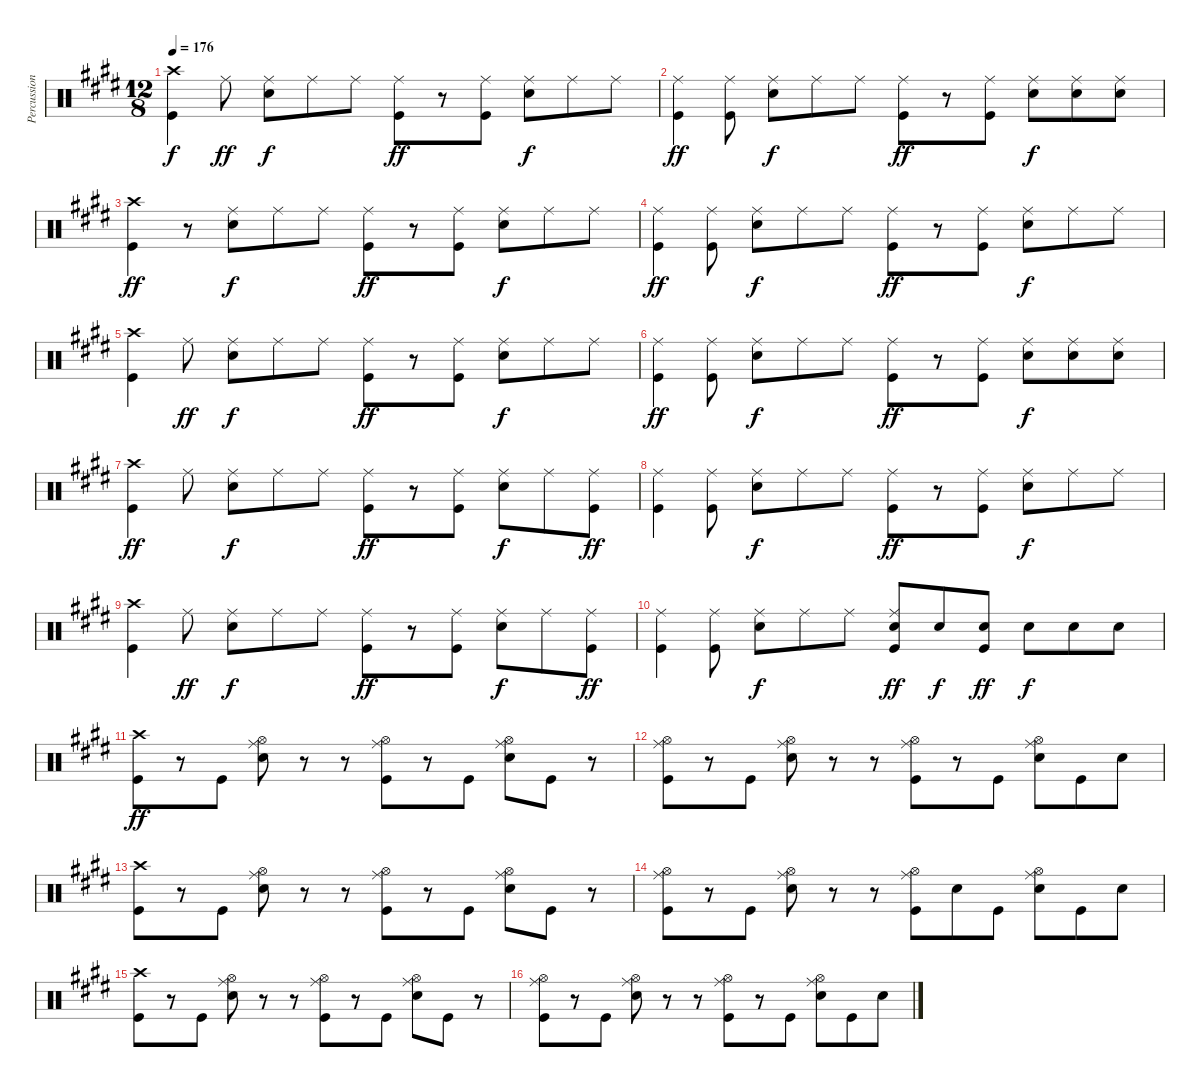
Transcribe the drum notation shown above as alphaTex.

\track ("Percussion" "Percussion") {instrument percussion}
\staff {score}
\articulation defaults
\ts (12 8)
\tempo 176
\clef neutral
\ks e
("Crash high (hit)" "Kick (hit)").4{dy f} "Ride (middle)".8{dy ff} ("Ride (middle)" "Electric Snare (hit)").8{dy f} "Ride (middle)".8 "Ride (middle)".8 ("Ride (middle)" "Kick (hit)").8{dy ff} r.8 ("Ride (middle)" "Kick (hit)").8 ("Ride (middle)" "Electric Snare (hit)").8{dy f} "Ride (middle)".8 "Ride (middle)".8 |
("Ride (middle)" "Kick (hit)").4{dy ff} ("Ride (middle)" "Kick (hit)").8 ("Ride (middle)" "Electric Snare (hit)").8{dy f} "Ride (middle)".8 "Ride (middle)".8 ("Ride (middle)" "Kick (hit)").8{dy ff} r.8 ("Ride (middle)" "Kick (hit)").8 ("Ride (middle)" "Electric Snare (hit)").8{dy f} ("Ride (middle)" "Electric Snare (hit)").8 ("Ride (middle)" "Electric Snare (hit)").8 |
("Crash high (hit)" "Kick (hit)").4{dy ff} r.8 ("Ride (middle)" "Electric Snare (hit)").8{dy f} "Ride (middle)".8 "Ride (middle)".8 ("Ride (middle)" "Kick (hit)").8{dy ff} r.8 ("Ride (middle)" "Kick (hit)").8 ("Ride (middle)" "Electric Snare (hit)").8{dy f} "Ride (middle)".8 "Ride (middle)".8 |
("Ride (middle)" "Kick (hit)").4{dy ff} ("Ride (middle)" "Kick (hit)").8 ("Ride (middle)" "Electric Snare (hit)").8{dy f} "Ride (middle)".8 "Ride (middle)".8 ("Ride (middle)" "Kick (hit)").8{dy ff} r.8 ("Ride (middle)" "Kick (hit)").8 ("Ride (middle)" "Electric Snare (hit)").8{dy f} "Ride (middle)".8 "Ride (middle)".8 |
("Crash high (hit)" "Kick (hit)").4 "Ride (middle)".8{dy ff} ("Ride (middle)" "Electric Snare (hit)").8{dy f} "Ride (middle)".8 "Ride (middle)".8 ("Ride (middle)" "Kick (hit)").8{dy ff} r.8 ("Ride (middle)" "Kick (hit)").8 ("Ride (middle)" "Electric Snare (hit)").8{dy f} "Ride (middle)".8 "Ride (middle)".8 |
("Ride (middle)" "Kick (hit)").4{dy ff} ("Ride (middle)" "Kick (hit)").8 ("Ride (middle)" "Electric Snare (hit)").8{dy f} "Ride (middle)".8 "Ride (middle)".8 ("Ride (middle)" "Kick (hit)").8{dy ff} r.8 ("Ride (middle)" "Kick (hit)").8 ("Ride (middle)" "Electric Snare (hit)").8{dy f} ("Ride (middle)" "Electric Snare (hit)").8 ("Ride (middle)" "Electric Snare (hit)").8 |
("Crash high (hit)" "Kick (hit)").4{dy ff} "Ride (middle)".8 ("Ride (middle)" "Electric Snare (hit)").8{dy f} "Ride (middle)".8 "Ride (middle)".8 ("Ride (middle)" "Kick (hit)").8{dy ff} r.8 ("Ride (middle)" "Kick (hit)").8 ("Ride (middle)" "Electric Snare (hit)").8{dy f} "Ride (middle)".8 ("Ride (middle)" "Kick (hit)").8{dy ff} |
("Ride (middle)" "Kick (hit)").4 ("Ride (middle)" "Kick (hit)").8 ("Ride (middle)" "Electric Snare (hit)").8{dy f} "Ride (middle)".8 "Ride (middle)".8 ("Ride (middle)" "Kick (hit)").8{dy ff} r.8 ("Ride (middle)" "Kick (hit)").8 ("Ride (middle)" "Electric Snare (hit)").8{dy f} "Ride (middle)".8 "Ride (middle)".8 |
("Crash high (hit)" "Kick (hit)").4 "Ride (middle)".8{dy ff} ("Ride (middle)" "Electric Snare (hit)").8{dy f} "Ride (middle)".8 "Ride (middle)".8 ("Ride (middle)" "Kick (hit)").8{dy ff} r.8 ("Ride (middle)" "Kick (hit)").8 ("Ride (middle)" "Electric Snare (hit)").8{dy f} "Ride (middle)".8 ("Ride (middle)" "Kick (hit)").8{dy ff} |
("Ride (middle)" "Kick (hit)").4 ("Ride (middle)" "Kick (hit)").8 ("Ride (middle)" "Electric Snare (hit)").8{dy f} "Ride (middle)".8 "Ride (middle)".8 ("Ride (middle)" "Electric Snare (hit)" "Kick (hit)").8{dy ff} "Electric Snare (hit)".8{dy f} ("Electric Snare (hit)" "Kick (hit)").8{dy ff} "Electric Snare (hit)".8{dy f} "Electric Snare (hit)".8 "Electric Snare (hit)".8 |
("Crash high (hit)" "Kick (hit)").8{dy ff} r.8 "Kick (hit)".8 ("Ride (middle)" "Hi-Hat (open)" "Electric Snare (hit)").8 r.8 r.8 ("Ride (middle)" "Hi-Hat (open)" "Kick (hit)").8 r.8 "Kick (hit)".8 ("Ride (middle)" "Hi-Hat (open)" "Electric Snare (hit)").8 "Kick (hit)".8 r.8 |
("Ride (middle)" "Hi-Hat (open)" "Kick (hit)").8 r.8 "Kick (hit)".8 ("Ride (middle)" "Hi-Hat (open)" "Electric Snare (hit)").8 r.8 r.8 ("Ride (middle)" "Hi-Hat (open)" "Kick (hit)").8 r.8 "Kick (hit)".8 ("Ride (middle)" "Hi-Hat (open)" "Electric Snare (hit)").8 "Kick (hit)".8 "Electric Snare (hit)".8 |
("Crash high (hit)" "Kick (hit)").8 r.8 "Kick (hit)".8 ("Ride (middle)" "Hi-Hat (open)" "Electric Snare (hit)").8 r.8 r.8 ("Ride (middle)" "Hi-Hat (open)" "Kick (hit)").8 r.8 "Kick (hit)".8 ("Ride (middle)" "Hi-Hat (open)" "Electric Snare (hit)").8 "Kick (hit)".8 r.8 |
("Ride (middle)" "Hi-Hat (open)" "Kick (hit)").8 r.8 "Kick (hit)".8 ("Ride (middle)" "Hi-Hat (open)" "Electric Snare (hit)").8 r.8 r.8 ("Ride (middle)" "Hi-Hat (open)" "Kick (hit)").8 "Electric Snare (hit)".8 "Kick (hit)".8 ("Ride (middle)" "Hi-Hat (open)" "Electric Snare (hit)").8 "Kick (hit)".8 "Electric Snare (hit)".8 |
("Crash high (hit)" "Kick (hit)").8 r.8 "Kick (hit)".8 ("Ride (middle)" "Hi-Hat (open)" "Electric Snare (hit)").8 r.8 r.8 ("Ride (middle)" "Hi-Hat (open)" "Kick (hit)").8 r.8 "Kick (hit)".8 ("Ride (middle)" "Hi-Hat (open)" "Electric Snare (hit)").8 "Kick (hit)".8 r.8 |
("Ride (middle)" "Hi-Hat (open)" "Kick (hit)").8 r.8 "Kick (hit)".8 ("Ride (middle)" "Hi-Hat (open)" "Electric Snare (hit)").8 r.8 r.8 ("Ride (middle)" "Hi-Hat (open)" "Kick (hit)").8 r.8 "Kick (hit)".8 ("Ride (middle)" "Hi-Hat (open)" "Electric Snare (hit)").8 "Kick (hit)".8 "Electric Snare (hit)".8
